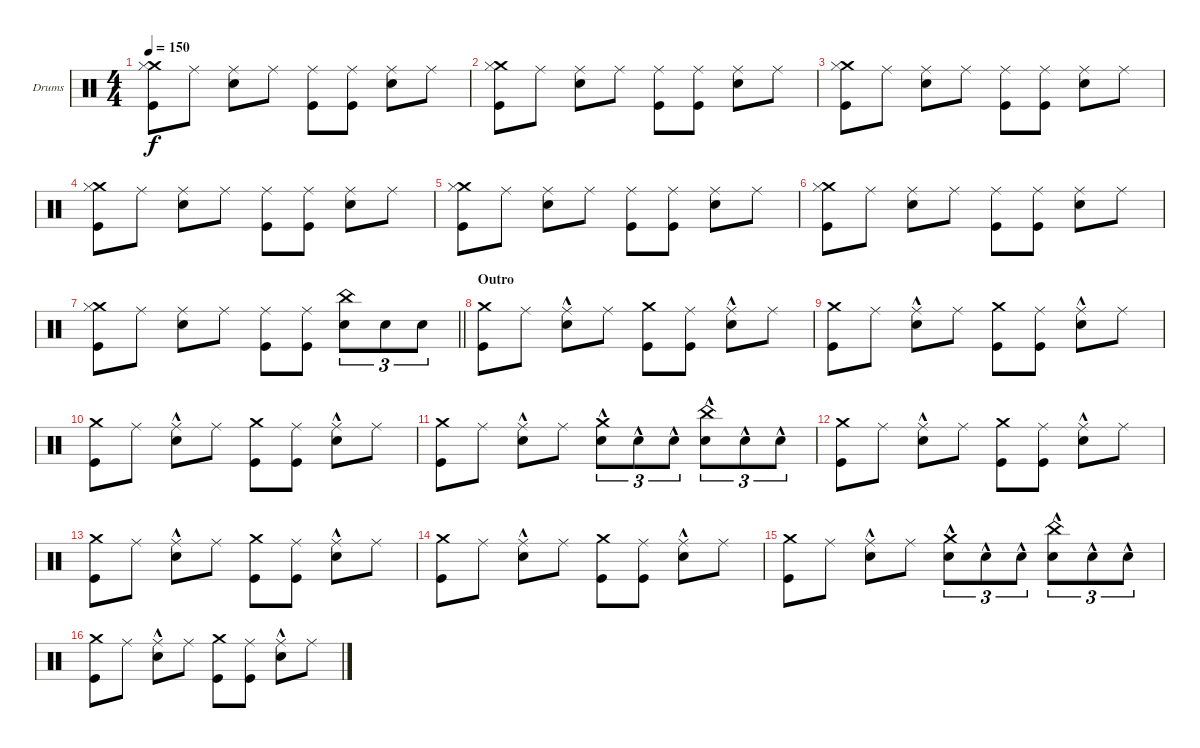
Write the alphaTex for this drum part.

\bracketExtendMode groupsimilarinstruments
\firstSystemTrackNameOrientation horizontal
\otherSystemsTrackNameOrientation horizontal
\track ("Drumkit" "Drums") {instrument percussion}
\staff {score}
\articulation defaults
\ts (4 4)
\tempo 150
\clef neutral
\ks c
("Crash medium (hit)" "Kick (hit)" "Hi-Hat (closed)").8{dy f} "Ride (middle)".8 ("Ride (middle)" "Snare (hit) 2").8 "Ride (middle)".8 ("Ride (middle)" "Kick (hit)").8 ("Ride (middle)" "Kick (hit)").8 ("Ride (middle)" "Snare (hit) 2").8 "Ride (middle)".8 |
("Crash medium (hit)" "Kick (hit)" "Hi-Hat (closed)").8 "Ride (middle)".8 ("Ride (middle)" "Snare (hit) 2").8 "Ride (middle)".8 ("Ride (middle)" "Kick (hit)").8 ("Ride (middle)" "Kick (hit)").8 ("Ride (middle)" "Snare (hit) 2").8 "Ride (middle)".8 |
("Crash medium (hit)" "Kick (hit)" "Hi-Hat (closed)").8 "Ride (middle)".8 ("Ride (middle)" "Snare (hit) 2").8 "Ride (middle)".8 ("Ride (middle)" "Kick (hit)").8 ("Ride (middle)" "Kick (hit)").8 ("Ride (middle)" "Snare (hit) 2").8 "Ride (middle)".8 |
("Crash medium (hit)" "Kick (hit)" "Hi-Hat (closed)").8 "Ride (middle)".8 ("Ride (middle)" "Snare (hit) 2").8 "Ride (middle)".8 ("Ride (middle)" "Kick (hit)").8 ("Ride (middle)" "Kick (hit)").8 ("Ride (middle)" "Snare (hit) 2").8 "Ride (middle)".8 |
("Crash medium (hit)" "Kick (hit)" "Hi-Hat (closed)").8 "Ride (middle)".8 ("Ride (middle)" "Snare (hit) 2").8 "Ride (middle)".8 ("Ride (middle)" "Kick (hit)").8 ("Ride (middle)" "Kick (hit)").8 ("Ride (middle)" "Snare (hit) 2").8 "Ride (middle)".8 |
("Crash medium (hit)" "Kick (hit)" "Hi-Hat (closed)").8 "Ride (middle)".8 ("Ride (middle)" "Snare (hit) 2").8 "Ride (middle)".8 ("Ride (middle)" "Kick (hit)").8 ("Ride (middle)" "Kick (hit)").8 ("Ride (middle)" "Snare (hit) 2").8 "Ride (middle)".8 |
\barLineRight lightlight
("Crash medium (hit)" "Kick (hit)" "Hi-Hat (closed)").8 "Ride (middle)".8 ("Ride (middle)" "Snare (hit) 2").8 "Ride (middle)".8 ("Ride (middle)" "Kick (hit)").8 ("Ride (middle)" "Kick (hit)").8 ("China (hit)" "Snare (hit) 2").8{tu (3 2)} "Snare (hit) 2".8{tu (3 2)} "Snare (hit) 2".8{tu (3 2)} |
\section ("" "Outro")
("Crash medium (hit)" "Kick (hit)").8 "Ride (middle)".8 ("Ride (middle)" "Snare (hit) 2"{hac}).8 "Ride (middle)".8 ("Kick (hit)" "Crash medium (hit)").8 ("Ride (middle)" "Kick (hit)").8 ("Ride (middle)" "Snare (hit) 2"{hac}).8 "Ride (middle)".8 |
("Crash medium (hit)" "Kick (hit)").8 "Ride (middle)".8 ("Ride (middle)" "Snare (hit) 2"{hac}).8 "Ride (middle)".8 ("Kick (hit)" "Crash medium (hit)").8 ("Ride (middle)" "Kick (hit)").8 ("Ride (middle)" "Snare (hit) 2"{hac}).8 "Ride (middle)".8 |
("Crash medium (hit)" "Kick (hit)").8 "Ride (middle)".8 ("Ride (middle)" "Snare (hit) 2"{hac}).8 "Ride (middle)".8 ("Kick (hit)" "Crash medium (hit)").8 ("Ride (middle)" "Kick (hit)").8 ("Ride (middle)" "Snare (hit) 2"{hac}).8 "Ride (middle)".8 |
("Crash medium (hit)" "Kick (hit)").8 "Ride (middle)".8 ("Ride (middle)" "Snare (hit) 2"{hac}).8 "Ride (middle)".8 ("Snare (hit) 2"{hac} "Crash medium (hit)").8{tu (3 2)} "Snare (hit) 2"{hac}.8{tu (3 2)} "Snare (hit) 2"{hac}.8{tu (3 2)} ("Snare (hit) 2"{hac} "China (hit)").8{tu (3 2)} "Snare (hit) 2"{hac}.8{tu (3 2)} "Snare (hit) 2"{hac}.8{tu (3 2)} |
("Crash medium (hit)" "Kick (hit)").8 "Ride (middle)".8 ("Ride (middle)" "Snare (hit) 2"{hac}).8 "Ride (middle)".8 ("Kick (hit)" "Crash medium (hit)").8 ("Ride (middle)" "Kick (hit)").8 ("Ride (middle)" "Snare (hit) 2"{hac}).8 "Ride (middle)".8 |
("Crash medium (hit)" "Kick (hit)").8 "Ride (middle)".8 ("Ride (middle)" "Snare (hit) 2"{hac}).8 "Ride (middle)".8 ("Kick (hit)" "Crash medium (hit)").8 ("Ride (middle)" "Kick (hit)").8 ("Ride (middle)" "Snare (hit) 2"{hac}).8 "Ride (middle)".8 |
("Crash medium (hit)" "Kick (hit)").8 "Ride (middle)".8 ("Ride (middle)" "Snare (hit) 2"{hac}).8 "Ride (middle)".8 ("Kick (hit)" "Crash medium (hit)").8 ("Ride (middle)" "Kick (hit)").8 ("Ride (middle)" "Snare (hit) 2"{hac}).8 "Ride (middle)".8 |
("Crash medium (hit)" "Kick (hit)").8 "Ride (middle)".8 ("Ride (middle)" "Snare (hit) 2"{hac}).8 "Ride (middle)".8 ("Snare (hit) 2"{hac} "Crash medium (hit)").8{tu (3 2)} "Snare (hit) 2"{hac}.8{tu (3 2)} "Snare (hit) 2"{hac}.8{tu (3 2)} ("Snare (hit) 2"{hac} "China (hit)").8{tu (3 2)} "Snare (hit) 2"{hac}.8{tu (3 2)} "Snare (hit) 2"{hac}.8{tu (3 2)} |
("Crash medium (hit)" "Kick (hit)").8 "Ride (middle)".8 ("Ride (middle)" "Snare (hit) 2"{hac}).8 "Ride (middle)".8 ("Kick (hit)" "Crash medium (hit)").8 ("Ride (middle)" "Kick (hit)").8 ("Ride (middle)" "Snare (hit) 2"{hac}).8 "Ride (middle)".8
